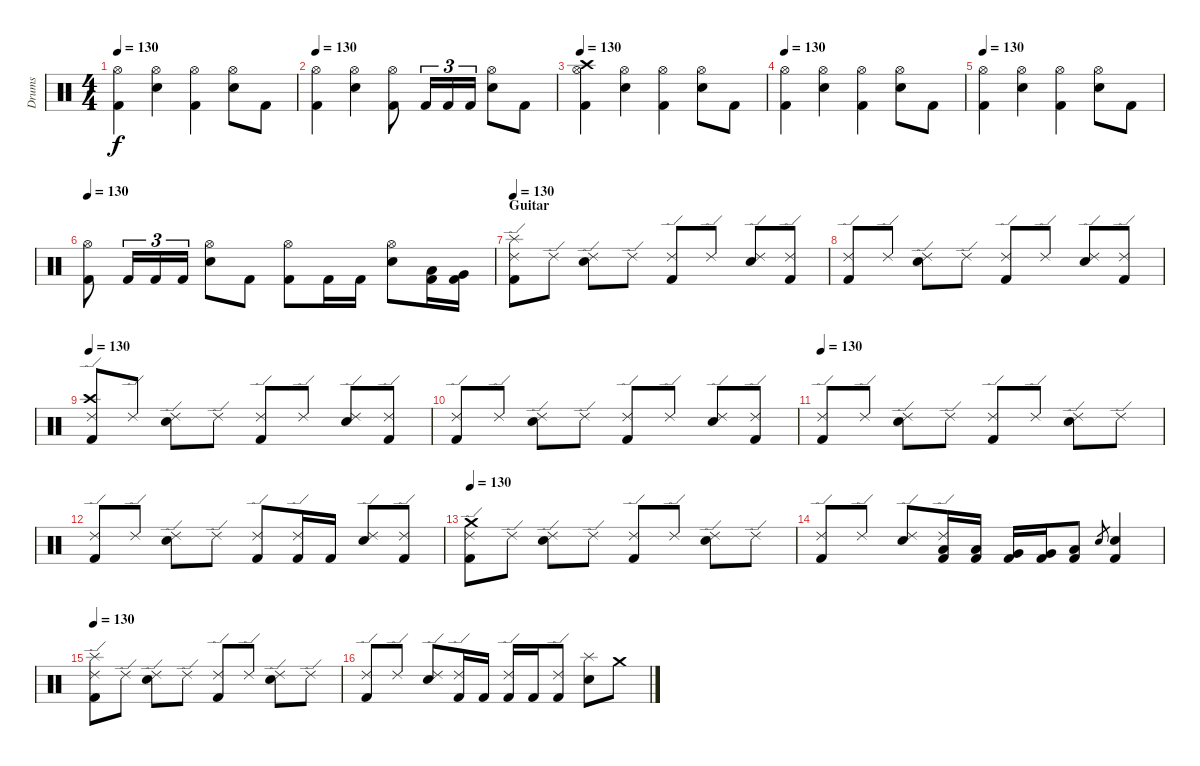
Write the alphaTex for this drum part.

\track ("Drums" "Drums") {instrument percussion}
\staff {score}
\articulation defaults
\ts (4 4)
\tempo 130
\clef neutral
\ks c
("Kick (hit) 2" "Hi-Hat (open)").4{dy f} ("Snare (hit) 2" "Hi-Hat (open)").4 ("Kick (hit) 2" "Hi-Hat (open)").4 ("Snare (hit) 2" "Hi-Hat (open)").8 "Kick (hit) 2".8 |
\tempo 130
("Kick (hit) 2" "Hi-Hat (open)").4 ("Snare (hit) 2" "Hi-Hat (open)").4 ("Kick (hit) 2" "Hi-Hat (open)").8 "Kick (hit) 2".16{tu (3 2)} "Kick (hit) 2".16{tu (3 2)} "Kick (hit) 2".16{tu (3 2)} ("Snare (hit) 2" "Hi-Hat (open)").8 "Kick (hit) 2".8 |
\tempo 130
("Kick (hit) 2" "Hi-Hat (open)" "Crash high (hit)").4 ("Snare (hit) 2" "Hi-Hat (open)").4 ("Kick (hit) 2" "Hi-Hat (open)").4 ("Snare (hit) 2" "Hi-Hat (open)").8 "Kick (hit) 2".8 |
\tempo 130
("Kick (hit) 2" "Hi-Hat (open)").4 ("Snare (hit) 2" "Hi-Hat (open)").4 ("Kick (hit) 2" "Hi-Hat (open)").4 ("Snare (hit) 2" "Hi-Hat (open)").8 "Kick (hit) 2".8 |
\tempo 130
("Kick (hit) 2" "Hi-Hat (open)").4 ("Snare (hit) 2" "Hi-Hat (open)").4 ("Kick (hit) 2" "Hi-Hat (open)").4 ("Snare (hit) 2" "Hi-Hat (open)").8 "Kick (hit) 2".8 |
\tempo 130
("Kick (hit) 2" "Hi-Hat (open)").8 "Kick (hit) 2".16{tu (3 2)} "Kick (hit) 2".16{tu (3 2)} "Kick (hit) 2".16{tu (3 2)} ("Snare (hit) 2" "Hi-Hat (open)").8 "Kick (hit) 2".8 ("Kick (hit) 2" "Hi-Hat (open)").8 "Kick (hit) 2".16 "Kick (hit) 2".16 ("Snare (hit) 2" "Hi-Hat (open)").8 ("Kick (hit) 2" "Low Tom (hit)").16 ("Kick (hit) 2" "Very Low Tom (hit)").16 |
\section ("" "Guitar")
\tempo 130
("Kick (hit) 2" "Ride (edge) 2" "Splash (hit)").8 "Ride (edge) 2".8 ("Snare (hit) 2" "Ride (edge) 2").8 "Ride (edge) 2".8 ("Kick (hit) 2" "Ride (edge) 2").8 "Ride (edge) 2".8 ("Snare (hit) 2" "Ride (edge) 2").8 ("Kick (hit) 2" "Ride (edge) 2").8 |
("Kick (hit) 2" "Ride (edge) 2").8 "Ride (edge) 2".8 ("Snare (hit) 2" "Ride (edge) 2").8 "Ride (edge) 2".8 ("Kick (hit) 2" "Ride (edge) 2").8 "Ride (edge) 2".8 ("Snare (hit) 2" "Ride (edge) 2").8 ("Kick (hit) 2" "Ride (edge) 2").8 |
\tempo 130
("Kick (hit) 2" "Ride (edge) 2" "Crash high (hit)").8 "Ride (edge) 2".8 ("Snare (hit) 2" "Ride (edge) 2").8 "Ride (edge) 2".8 ("Kick (hit) 2" "Ride (edge) 2").8 "Ride (edge) 2".8 ("Snare (hit) 2" "Ride (edge) 2").8 ("Kick (hit) 2" "Ride (edge) 2").8 |
("Kick (hit) 2" "Ride (edge) 2").8 "Ride (edge) 2".8 ("Snare (hit) 2" "Ride (edge) 2").8 "Ride (edge) 2".8 ("Kick (hit) 2" "Ride (edge) 2").8 "Ride (edge) 2".8 ("Snare (hit) 2" "Ride (edge) 2").8 ("Kick (hit) 2" "Ride (edge) 2").8 |
\tempo 130
("Kick (hit) 2" "Ride (edge) 2").8 "Ride (edge) 2".8 ("Snare (hit) 2" "Ride (edge) 2").8 "Ride (edge) 2".8 ("Kick (hit) 2" "Ride (edge) 2").8 "Ride (edge) 2".8 ("Snare (hit) 2" "Ride (edge) 2").8 "Ride (edge) 2".8 |
("Kick (hit) 2" "Ride (edge) 2").8 "Ride (edge) 2".8 ("Snare (hit) 2" "Ride (edge) 2").8 "Ride (edge) 2".8 ("Kick (hit) 2" "Ride (edge) 2").8 ("Kick (hit) 2" "Ride (edge) 2").16 "Kick (hit) 2".16 ("Snare (hit) 2" "Ride (edge) 2").8 ("Kick (hit) 2" "Ride (edge) 2").8 |
\tempo 130
("Kick (hit) 2" "Ride (edge) 2" "Crash medium (hit)").8 "Ride (edge) 2".8 ("Snare (hit) 2" "Ride (edge) 2").8 "Ride (edge) 2".8 ("Kick (hit) 2" "Ride (edge) 2").8 "Ride (edge) 2".8 ("Snare (hit) 2" "Ride (edge) 2").8 "Ride (edge) 2".8 |
("Kick (hit) 2" "Ride (edge) 2").8 "Ride (edge) 2".8 ("Snare (hit) 2" "Ride (edge) 2").8 ("Kick (hit) 2" "Low Tom (hit)" "Ride (edge) 2").16 ("Kick (hit) 2" "Low Tom (hit)").16 ("Kick (hit) 2" "Very Low Tom (hit)").16 ("Kick (hit) 2" "Very Low Tom (hit)").16 ("Kick (hit) 2" "Low Floor Tom (hit)").8 "Snare (hit) 2".8{gr} ("Kick (hit) 2" "Snare (hit) 2").4 |
\section ("" "")
\tempo 130
("Kick (hit) 2" "Ride (edge) 2" "Splash (hit)").8 "Ride (edge) 2".8 ("Snare (hit) 2" "Ride (edge) 2").8 "Ride (edge) 2".8 ("Kick (hit) 2" "Ride (edge) 2").8 "Ride (edge) 2".8 ("Snare (hit) 2" "Ride (edge) 2").8 "Ride (edge) 2".8 |
("Kick (hit) 2" "Ride (edge) 2").8 "Ride (edge) 2".8 ("Snare (hit) 2" "Ride (edge) 2").8 ("Kick (hit) 2" "Ride (edge) 2").16 "Kick (hit) 2".16 ("Kick (hit) 2" "Ride (edge) 2").16 "Kick (hit) 2".16 ("Kick (hit) 2" "Ride (edge) 2").8 ("Snare (hit) 2" "Splash (hit)").8 "Crash medium (hit)".8
